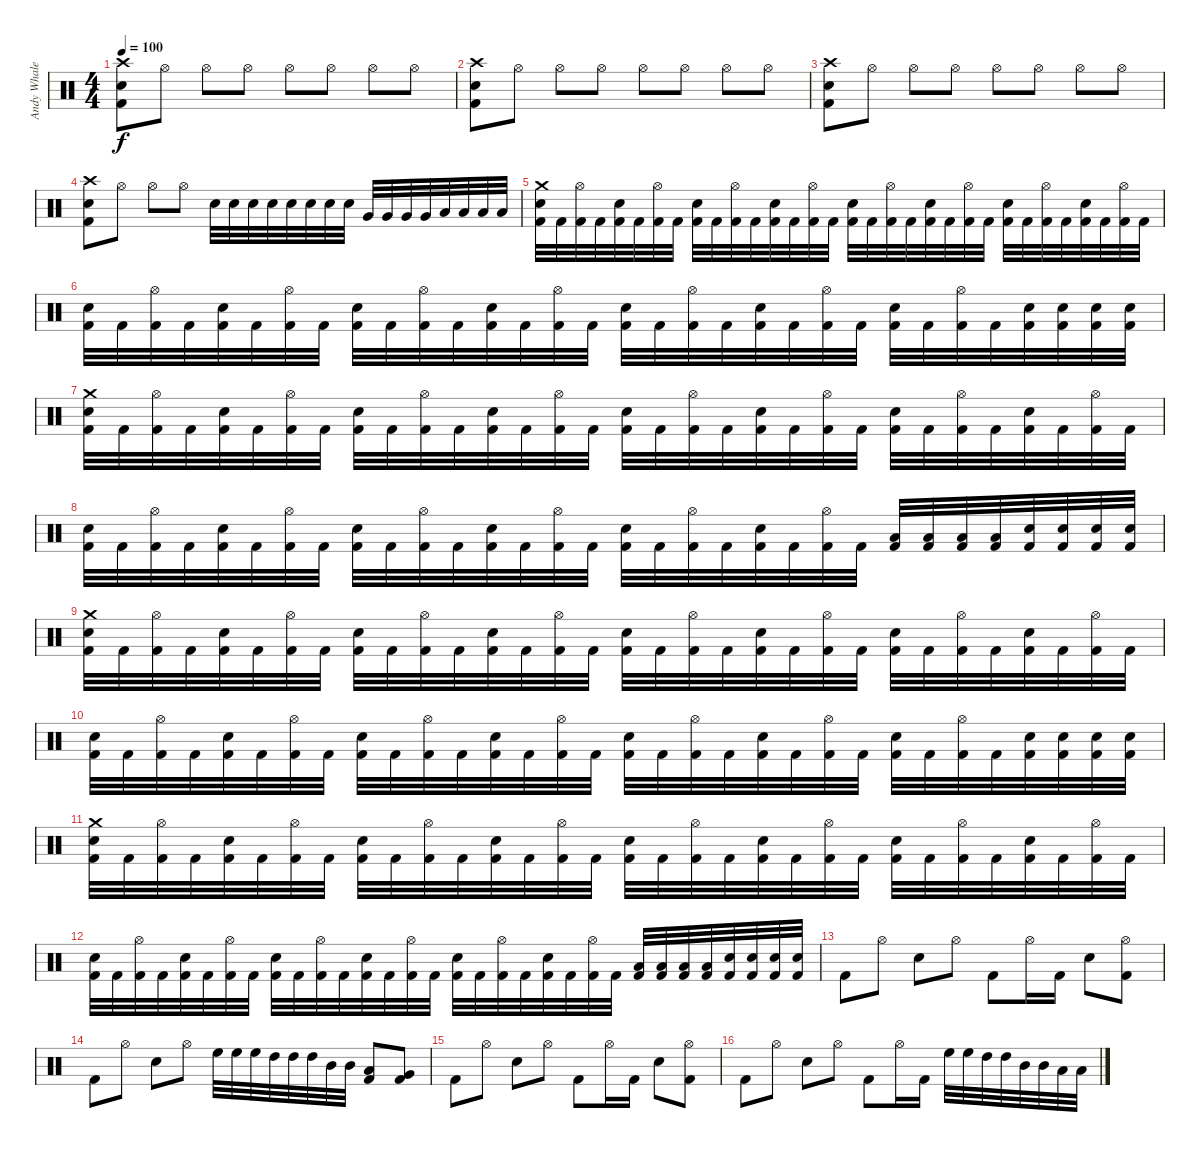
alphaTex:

\track ("Andy Whale" "Andy Whale") {instrument percussion}
\staff {score}
\articulation defaults
\ts (4 4)
\tempo 100
\clef neutral
\ks c
("Crash high (hit)" "Snare (hit) 2" "Kick (hit) 2").8{dy f} "Hi-Hat (open)".8 "Hi-Hat (open)".8 "Hi-Hat (open)".8 "Hi-Hat (open)".8 "Hi-Hat (open)".8 "Hi-Hat (open)".8 "Hi-Hat (open)".8 |
("Crash high (hit)" "Snare (hit) 2" "Kick (hit) 2").8 "Hi-Hat (open)".8 "Hi-Hat (open)".8 "Hi-Hat (open)".8 "Hi-Hat (open)".8 "Hi-Hat (open)".8 "Hi-Hat (open)".8 "Hi-Hat (open)".8 |
("Crash high (hit)" "Snare (hit) 2" "Kick (hit) 2").8 "Hi-Hat (open)".8 "Hi-Hat (open)".8 "Hi-Hat (open)".8 "Hi-Hat (open)".8 "Hi-Hat (open)".8 "Hi-Hat (open)".8 "Hi-Hat (open)".8 |
("Crash high (hit)" "Snare (hit) 2" "Kick (hit) 2").8 "Hi-Hat (open)".8 "Hi-Hat (open)".8 "Hi-Hat (open)".8 "Electric Snare (hit)".32 "Electric Snare (hit)".32 "Electric Snare (hit)".32 "Electric Snare (hit)".32 "Snare (hit) 2".32 "Snare (hit) 2".32 "Snare (hit) 2".32 "Snare (hit) 2".32 "Very Low Tom (hit)".32 "Very Low Tom (hit)".32 "Very Low Tom (hit)".32 "Very Low Tom (hit)".32 "Low Floor Tom (hit)".32 "Low Floor Tom (hit)".32 "Low Floor Tom (hit)".32 "Low Floor Tom (hit)".32 |
("Crash medium (hit)" "Snare (hit) 2" "Kick (hit) 2").32 "Kick (hit) 2".32 ("Hi-Hat (open)" "Kick (hit) 2").32 "Kick (hit) 2".32 ("Snare (hit) 2" "Kick (hit) 2").32 "Kick (hit) 2".32 ("Hi-Hat (open)" "Kick (hit) 2").32 "Kick (hit) 2".32 ("Snare (hit) 2" "Kick (hit) 2").32 "Kick (hit) 2".32 ("Hi-Hat (open)" "Kick (hit) 2").32 "Kick (hit) 2".32 ("Snare (hit) 2" "Kick (hit) 2").32 "Kick (hit) 2".32 ("Hi-Hat (open)" "Kick (hit) 2").32 "Kick (hit) 2".32 ("Snare (hit) 2" "Kick (hit) 2").32 "Kick (hit) 2".32 ("Hi-Hat (open)" "Kick (hit) 2").32 "Kick (hit) 2".32 ("Snare (hit) 2" "Kick (hit) 2").32 "Kick (hit) 2".32 ("Hi-Hat (open)" "Kick (hit) 2").32 "Kick (hit) 2".32 ("Snare (hit) 2" "Kick (hit) 2").32 "Kick (hit) 2".32 ("Hi-Hat (open)" "Kick (hit) 2").32 "Kick (hit) 2".32 ("Snare (hit) 2" "Kick (hit) 2").32 "Kick (hit) 2".32 ("Hi-Hat (open)" "Kick (hit) 2").32 "Kick (hit) 2".32 |
("Snare (hit) 2" "Kick (hit) 2").32 "Kick (hit) 2".32 ("Hi-Hat (open)" "Kick (hit) 2").32 "Kick (hit) 2".32 ("Snare (hit) 2" "Kick (hit) 2").32 "Kick (hit) 2".32 ("Hi-Hat (open)" "Kick (hit) 2").32 "Kick (hit) 2".32 ("Snare (hit) 2" "Kick (hit) 2").32 "Kick (hit) 2".32 ("Hi-Hat (open)" "Kick (hit) 2").32 "Kick (hit) 2".32 ("Snare (hit) 2" "Kick (hit) 2").32 "Kick (hit) 2".32 ("Hi-Hat (open)" "Kick (hit) 2").32 "Kick (hit) 2".32 ("Snare (hit) 2" "Kick (hit) 2").32 "Kick (hit) 2".32 ("Hi-Hat (open)" "Kick (hit) 2").32 "Kick (hit) 2".32 ("Snare (hit) 2" "Kick (hit) 2").32 "Kick (hit) 2".32 ("Hi-Hat (open)" "Kick (hit) 2").32 "Kick (hit) 2".32 ("Snare (hit) 2" "Kick (hit) 2").32 "Kick (hit) 2".32 ("Hi-Hat (open)" "Kick (hit) 2").32 "Kick (hit) 2".32 ("Snare (hit) 2" "Kick (hit) 2").32 ("Snare (hit) 2" "Kick (hit) 2").32 ("Snare (hit) 2" "Kick (hit) 2").32 ("Snare (hit) 2" "Kick (hit) 2").32 |
("Crash medium (hit)" "Snare (hit) 2" "Kick (hit) 2").32 "Kick (hit) 2".32 ("Hi-Hat (open)" "Kick (hit) 2").32 "Kick (hit) 2".32 ("Snare (hit) 2" "Kick (hit) 2").32 "Kick (hit) 2".32 ("Hi-Hat (open)" "Kick (hit) 2").32 "Kick (hit) 2".32 ("Snare (hit) 2" "Kick (hit) 2").32 "Kick (hit) 2".32 ("Hi-Hat (open)" "Kick (hit) 2").32 "Kick (hit) 2".32 ("Snare (hit) 2" "Kick (hit) 2").32 "Kick (hit) 2".32 ("Hi-Hat (open)" "Kick (hit) 2").32 "Kick (hit) 2".32 ("Snare (hit) 2" "Kick (hit) 2").32 "Kick (hit) 2".32 ("Hi-Hat (open)" "Kick (hit) 2").32 "Kick (hit) 2".32 ("Snare (hit) 2" "Kick (hit) 2").32 "Kick (hit) 2".32 ("Hi-Hat (open)" "Kick (hit) 2").32 "Kick (hit) 2".32 ("Snare (hit) 2" "Kick (hit) 2").32 "Kick (hit) 2".32 ("Hi-Hat (open)" "Kick (hit) 2").32 "Kick (hit) 2".32 ("Snare (hit) 2" "Kick (hit) 2").32 "Kick (hit) 2".32 ("Hi-Hat (open)" "Kick (hit) 2").32 "Kick (hit) 2".32 |
("Snare (hit) 2" "Kick (hit) 2").32 "Kick (hit) 2".32 ("Hi-Hat (open)" "Kick (hit) 2").32 "Kick (hit) 2".32 ("Snare (hit) 2" "Kick (hit) 2").32 "Kick (hit) 2".32 ("Hi-Hat (open)" "Kick (hit) 2").32 "Kick (hit) 2".32 ("Snare (hit) 2" "Kick (hit) 2").32 "Kick (hit) 2".32 ("Hi-Hat (open)" "Kick (hit) 2").32 "Kick (hit) 2".32 ("Snare (hit) 2" "Kick (hit) 2").32 "Kick (hit) 2".32 ("Hi-Hat (open)" "Kick (hit) 2").32 "Kick (hit) 2".32 ("Snare (hit) 2" "Kick (hit) 2").32 "Kick (hit) 2".32 ("Hi-Hat (open)" "Kick (hit) 2").32 "Kick (hit) 2".32 ("Snare (hit) 2" "Kick (hit) 2").32 "Kick (hit) 2".32 ("Hi-Hat (open)" "Kick (hit) 2").32 "Kick (hit) 2".32 ("Low Tom (hit)" "Kick (hit) 2").32 ("Low Tom (hit)" "Kick (hit) 2").32 ("Low Tom (hit)" "Kick (hit) 2").32 ("Low Tom (hit)" "Kick (hit) 2").32 ("Snare (hit) 2" "Kick (hit) 2").32 ("Snare (hit) 2" "Kick (hit) 2").32 ("Snare (hit) 2" "Kick (hit) 2").32 ("Snare (hit) 2" "Kick (hit) 2").32 |
("Crash medium (hit)" "Snare (hit) 2" "Kick (hit) 2").32 "Kick (hit) 2".32 ("Hi-Hat (open)" "Kick (hit) 2").32 "Kick (hit) 2".32 ("Snare (hit) 2" "Kick (hit) 2").32 "Kick (hit) 2".32 ("Hi-Hat (open)" "Kick (hit) 2").32 "Kick (hit) 2".32 ("Snare (hit) 2" "Kick (hit) 2").32 "Kick (hit) 2".32 ("Hi-Hat (open)" "Kick (hit) 2").32 "Kick (hit) 2".32 ("Snare (hit) 2" "Kick (hit) 2").32 "Kick (hit) 2".32 ("Hi-Hat (open)" "Kick (hit) 2").32 "Kick (hit) 2".32 ("Snare (hit) 2" "Kick (hit) 2").32 "Kick (hit) 2".32 ("Hi-Hat (open)" "Kick (hit) 2").32 "Kick (hit) 2".32 ("Snare (hit) 2" "Kick (hit) 2").32 "Kick (hit) 2".32 ("Hi-Hat (open)" "Kick (hit) 2").32 "Kick (hit) 2".32 ("Snare (hit) 2" "Kick (hit) 2").32 "Kick (hit) 2".32 ("Hi-Hat (open)" "Kick (hit) 2").32 "Kick (hit) 2".32 ("Snare (hit) 2" "Kick (hit) 2").32 "Kick (hit) 2".32 ("Hi-Hat (open)" "Kick (hit) 2").32 "Kick (hit) 2".32 |
("Snare (hit) 2" "Kick (hit) 2").32 "Kick (hit) 2".32 ("Hi-Hat (open)" "Kick (hit) 2").32 "Kick (hit) 2".32 ("Snare (hit) 2" "Kick (hit) 2").32 "Kick (hit) 2".32 ("Hi-Hat (open)" "Kick (hit) 2").32 "Kick (hit) 2".32 ("Snare (hit) 2" "Kick (hit) 2").32 "Kick (hit) 2".32 ("Hi-Hat (open)" "Kick (hit) 2").32 "Kick (hit) 2".32 ("Snare (hit) 2" "Kick (hit) 2").32 "Kick (hit) 2".32 ("Hi-Hat (open)" "Kick (hit) 2").32 "Kick (hit) 2".32 ("Snare (hit) 2" "Kick (hit) 2").32 "Kick (hit) 2".32 ("Hi-Hat (open)" "Kick (hit) 2").32 "Kick (hit) 2".32 ("Snare (hit) 2" "Kick (hit) 2").32 "Kick (hit) 2".32 ("Hi-Hat (open)" "Kick (hit) 2").32 "Kick (hit) 2".32 ("Snare (hit) 2" "Kick (hit) 2").32 "Kick (hit) 2".32 ("Hi-Hat (open)" "Kick (hit) 2").32 "Kick (hit) 2".32 ("Snare (hit) 2" "Kick (hit) 2").32 ("Snare (hit) 2" "Kick (hit) 2").32 ("Snare (hit) 2" "Kick (hit) 2").32 ("Snare (hit) 2" "Kick (hit) 2").32 |
("Crash medium (hit)" "Snare (hit) 2" "Kick (hit) 2").32 "Kick (hit) 2".32 ("Hi-Hat (open)" "Kick (hit) 2").32 "Kick (hit) 2".32 ("Snare (hit) 2" "Kick (hit) 2").32 "Kick (hit) 2".32 ("Hi-Hat (open)" "Kick (hit) 2").32 "Kick (hit) 2".32 ("Snare (hit) 2" "Kick (hit) 2").32 "Kick (hit) 2".32 ("Hi-Hat (open)" "Kick (hit) 2").32 "Kick (hit) 2".32 ("Snare (hit) 2" "Kick (hit) 2").32 "Kick (hit) 2".32 ("Hi-Hat (open)" "Kick (hit) 2").32 "Kick (hit) 2".32 ("Snare (hit) 2" "Kick (hit) 2").32 "Kick (hit) 2".32 ("Hi-Hat (open)" "Kick (hit) 2").32 "Kick (hit) 2".32 ("Snare (hit) 2" "Kick (hit) 2").32 "Kick (hit) 2".32 ("Hi-Hat (open)" "Kick (hit) 2").32 "Kick (hit) 2".32 ("Snare (hit) 2" "Kick (hit) 2").32 "Kick (hit) 2".32 ("Hi-Hat (open)" "Kick (hit) 2").32 "Kick (hit) 2".32 ("Snare (hit) 2" "Kick (hit) 2").32 "Kick (hit) 2".32 ("Hi-Hat (open)" "Kick (hit) 2").32 "Kick (hit) 2".32 |
("Snare (hit) 2" "Kick (hit) 2").32 "Kick (hit) 2".32 ("Hi-Hat (open)" "Kick (hit) 2").32 "Kick (hit) 2".32 ("Snare (hit) 2" "Kick (hit) 2").32 "Kick (hit) 2".32 ("Hi-Hat (open)" "Kick (hit) 2").32 "Kick (hit) 2".32 ("Snare (hit) 2" "Kick (hit) 2").32 "Kick (hit) 2".32 ("Hi-Hat (open)" "Kick (hit) 2").32 "Kick (hit) 2".32 ("Snare (hit) 2" "Kick (hit) 2").32 "Kick (hit) 2".32 ("Hi-Hat (open)" "Kick (hit) 2").32 "Kick (hit) 2".32 ("Snare (hit) 2" "Kick (hit) 2").32 "Kick (hit) 2".32 ("Hi-Hat (open)" "Kick (hit) 2").32 "Kick (hit) 2".32 ("Snare (hit) 2" "Kick (hit) 2").32 "Kick (hit) 2".32 ("Hi-Hat (open)" "Kick (hit) 2").32 "Kick (hit) 2".32 ("Low Tom (hit)" "Kick (hit) 2").32 ("Low Tom (hit)" "Kick (hit) 2").32 ("Low Tom (hit)" "Kick (hit) 2").32 ("Low Tom (hit)" "Kick (hit) 2").32 ("Snare (hit) 2" "Kick (hit) 2").32 ("Snare (hit) 2" "Kick (hit) 2").32 ("Snare (hit) 2" "Kick (hit) 2").32 ("Snare (hit) 2" "Kick (hit) 2").32 |
"Kick (hit) 2".8 "Hi-Hat (open)".8 "Snare (hit) 2".8 "Hi-Hat (open)".8 "Kick (hit) 2".8 "Hi-Hat (open)".16 "Kick (hit) 2".16 "Snare (hit) 2".8 ("Hi-Hat (open)" "Kick (hit) 2").8 |
"Kick (hit) 2".8 "Hi-Hat (open)".8 "Snare (hit) 2".8 "Hi-Hat (open)".8 "High Floor Tom (hit)".32 "High Floor Tom (hit)".32 "High Floor Tom (hit)".32 "High Tom (hit)".32 "High Tom (hit)".32 "High Tom (hit)".32 "Mid Tom (hit)".32 "Mid Tom (hit)".32 ("Low Tom (hit)" "Kick (hit) 2").8 ("Very Low Tom (hit)" "Kick (hit) 2").8 |
"Kick (hit) 2".8 "Hi-Hat (open)".8 "Snare (hit) 2".8 "Hi-Hat (open)".8 "Kick (hit) 2".8 "Hi-Hat (open)".16 "Kick (hit) 2".16 "Snare (hit) 2".8 ("Hi-Hat (open)" "Kick (hit) 2").8 |
"Kick (hit) 2".8 "Hi-Hat (open)".8 "Snare (hit) 2".8 "Hi-Hat (open)".8 "Kick (hit) 2".8 "Hi-Hat (open)".16 "Kick (hit) 2".16 "High Floor Tom (hit)".32 "High Floor Tom (hit)".32 "High Tom (hit)".32 "High Tom (hit)".32 "Mid Tom (hit)".32 "Mid Tom (hit)".32 "Low Tom (hit)".32 "Low Tom (hit)".32
